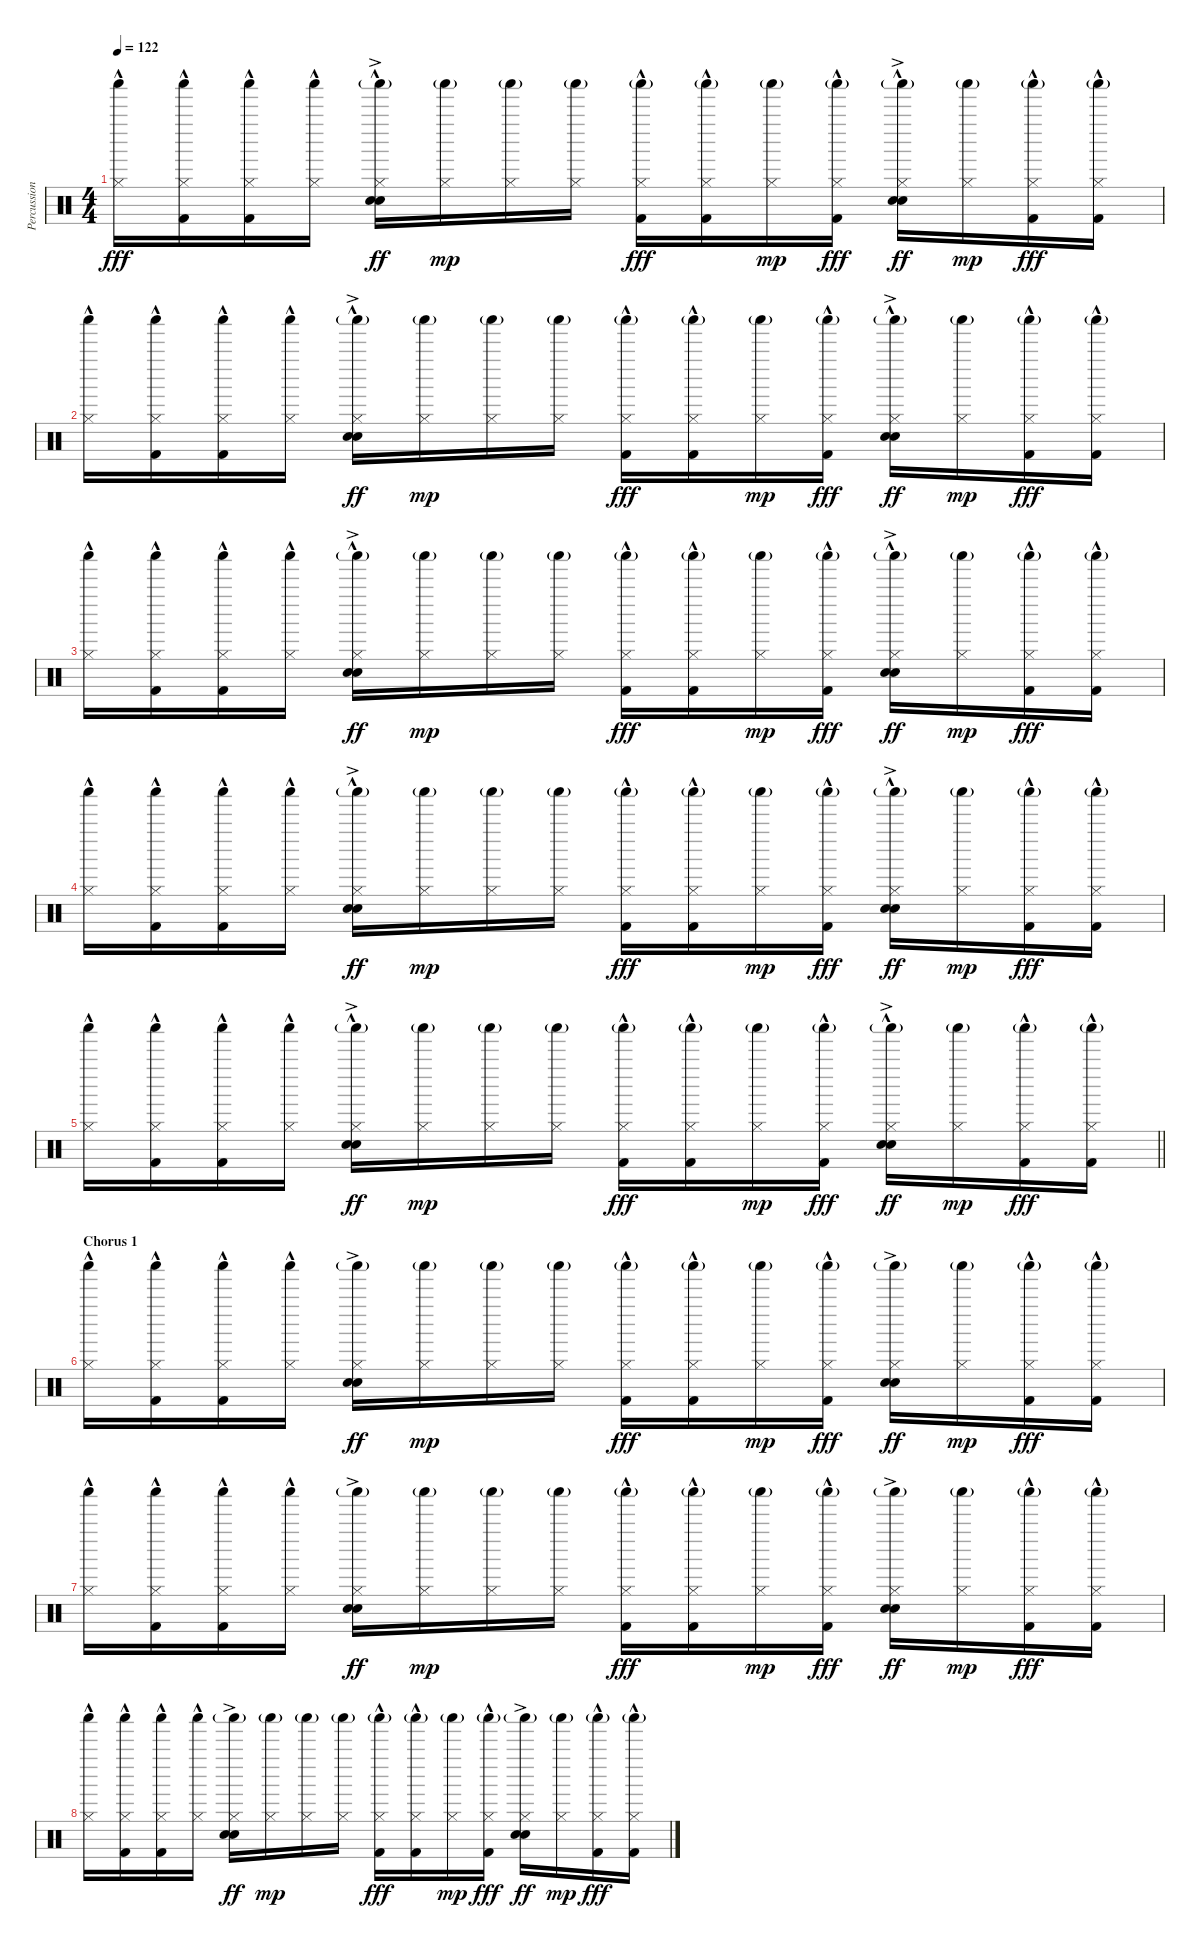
\track ("Percussion" "Percussion") {instrument percussion}
\staff {score}
\articulation defaults
\ts (4 4)
\tempo 122
\clef neutral
\ks c
("Shaker (hit)" "Hi-Hat (closed)"{hac}).16{dy fff} ("Shaker (hit)" "Hi-Hat (closed)"{hac} "Kick (hit) 2"{hac}).16 ("Shaker (hit)" "Hi-Hat (closed)"{hac} "Kick (hit) 2"{hac}).16 ("Shaker (hit)" "Hi-Hat (closed)"{hac}).16 ("Shaker (hit)"{g} "Hi-Hat (closed)" "Hand Clap (hit)"{hac} "Snare (hit) 2"{ac}).16{dy ff} ("Shaker (hit)"{g} "Hi-Hat (closed)").16{dy mp} ("Shaker (hit)"{g} "Hi-Hat (closed)").16 ("Shaker (hit)"{g} "Hi-Hat (closed)").16 ("Shaker (hit)"{g} "Hi-Hat (closed)" "Kick (hit) 2"{hac}).16{dy fff} ("Shaker (hit)"{g} "Hi-Hat (closed)" "Kick (hit) 2"{hac}).16 ("Shaker (hit)"{g} "Hi-Hat (closed)").16{dy mp} ("Shaker (hit)"{g} "Hi-Hat (closed)" "Kick (hit) 2"{hac}).16{dy fff} ("Shaker (hit)"{g} "Hi-Hat (closed)" "Hand Clap (hit)"{hac} "Snare (hit) 2"{ac}).16{dy ff} ("Shaker (hit)"{g} "Hi-Hat (closed)").16{dy mp} ("Shaker (hit)"{g} "Hi-Hat (closed)" "Kick (hit) 2"{hac}).16{dy fff} ("Shaker (hit)"{g} "Hi-Hat (closed)" "Kick (hit) 2"{hac}).16 |
("Shaker (hit)" "Hi-Hat (closed)"{hac}).16 ("Shaker (hit)" "Hi-Hat (closed)"{hac} "Kick (hit) 2"{hac}).16 ("Shaker (hit)" "Hi-Hat (closed)"{hac} "Kick (hit) 2"{hac}).16 ("Shaker (hit)" "Hi-Hat (closed)"{hac}).16 ("Shaker (hit)"{g} "Hi-Hat (closed)" "Hand Clap (hit)"{hac} "Snare (hit) 2"{ac}).16{dy ff} ("Shaker (hit)"{g} "Hi-Hat (closed)").16{dy mp} ("Shaker (hit)"{g} "Hi-Hat (closed)").16 ("Shaker (hit)"{g} "Hi-Hat (closed)").16 ("Shaker (hit)"{g} "Hi-Hat (closed)" "Kick (hit) 2"{hac}).16{dy fff} ("Shaker (hit)"{g} "Hi-Hat (closed)" "Kick (hit) 2"{hac}).16 ("Shaker (hit)"{g} "Hi-Hat (closed)").16{dy mp} ("Shaker (hit)"{g} "Hi-Hat (closed)" "Kick (hit) 2"{hac}).16{dy fff} ("Shaker (hit)"{g} "Hi-Hat (closed)" "Hand Clap (hit)"{hac} "Snare (hit) 2"{ac}).16{dy ff} ("Shaker (hit)"{g} "Hi-Hat (closed)").16{dy mp} ("Shaker (hit)"{g} "Hi-Hat (closed)" "Kick (hit) 2"{hac}).16{dy fff} ("Shaker (hit)"{g} "Hi-Hat (closed)" "Kick (hit) 2"{hac}).16 |
("Shaker (hit)" "Hi-Hat (closed)"{hac}).16 ("Shaker (hit)" "Hi-Hat (closed)"{hac} "Kick (hit) 2"{hac}).16 ("Shaker (hit)" "Hi-Hat (closed)"{hac} "Kick (hit) 2"{hac}).16 ("Shaker (hit)" "Hi-Hat (closed)"{hac}).16 ("Shaker (hit)"{g} "Hi-Hat (closed)" "Hand Clap (hit)"{hac} "Snare (hit) 2"{ac}).16{dy ff} ("Shaker (hit)"{g} "Hi-Hat (closed)").16{dy mp} ("Shaker (hit)"{g} "Hi-Hat (closed)").16 ("Shaker (hit)"{g} "Hi-Hat (closed)").16 ("Shaker (hit)"{g} "Hi-Hat (closed)" "Kick (hit) 2"{hac}).16{dy fff} ("Shaker (hit)"{g} "Hi-Hat (closed)" "Kick (hit) 2"{hac}).16 ("Shaker (hit)"{g} "Hi-Hat (closed)").16{dy mp} ("Shaker (hit)"{g} "Hi-Hat (closed)" "Kick (hit) 2"{hac}).16{dy fff} ("Shaker (hit)"{g} "Hi-Hat (closed)" "Hand Clap (hit)"{hac} "Snare (hit) 2"{ac}).16{dy ff} ("Shaker (hit)"{g} "Hi-Hat (closed)").16{dy mp} ("Shaker (hit)"{g} "Hi-Hat (closed)" "Kick (hit) 2"{hac}).16{dy fff} ("Shaker (hit)"{g} "Hi-Hat (closed)" "Kick (hit) 2"{hac}).16 |
("Shaker (hit)" "Hi-Hat (closed)"{hac}).16 ("Shaker (hit)" "Hi-Hat (closed)"{hac} "Kick (hit) 2"{hac}).16 ("Shaker (hit)" "Hi-Hat (closed)"{hac} "Kick (hit) 2"{hac}).16 ("Shaker (hit)" "Hi-Hat (closed)"{hac}).16 ("Shaker (hit)"{g} "Hi-Hat (closed)" "Hand Clap (hit)"{hac} "Snare (hit) 2"{ac}).16{dy ff} ("Shaker (hit)"{g} "Hi-Hat (closed)").16{dy mp} ("Shaker (hit)"{g} "Hi-Hat (closed)").16 ("Shaker (hit)"{g} "Hi-Hat (closed)").16 ("Shaker (hit)"{g} "Hi-Hat (closed)" "Kick (hit) 2"{hac}).16{dy fff} ("Shaker (hit)"{g} "Hi-Hat (closed)" "Kick (hit) 2"{hac}).16 ("Shaker (hit)"{g} "Hi-Hat (closed)").16{dy mp} ("Shaker (hit)"{g} "Hi-Hat (closed)" "Kick (hit) 2"{hac}).16{dy fff} ("Shaker (hit)"{g} "Hi-Hat (closed)" "Hand Clap (hit)"{hac} "Snare (hit) 2"{ac}).16{dy ff} ("Shaker (hit)"{g} "Hi-Hat (closed)").16{dy mp} ("Shaker (hit)"{g} "Hi-Hat (closed)" "Kick (hit) 2"{hac}).16{dy fff} ("Shaker (hit)"{g} "Hi-Hat (closed)" "Kick (hit) 2"{hac}).16 |
\barLineRight lightlight
("Shaker (hit)" "Hi-Hat (closed)"{hac}).16 ("Shaker (hit)" "Hi-Hat (closed)"{hac} "Kick (hit) 2"{hac}).16 ("Shaker (hit)" "Hi-Hat (closed)"{hac} "Kick (hit) 2"{hac}).16 ("Shaker (hit)" "Hi-Hat (closed)"{hac}).16 ("Shaker (hit)"{g} "Hi-Hat (closed)" "Hand Clap (hit)"{hac} "Snare (hit) 2"{ac}).16{dy ff} ("Shaker (hit)"{g} "Hi-Hat (closed)").16{dy mp} ("Shaker (hit)"{g} "Hi-Hat (closed)").16 ("Shaker (hit)"{g} "Hi-Hat (closed)").16 ("Shaker (hit)"{g} "Hi-Hat (closed)" "Kick (hit) 2"{hac}).16{dy fff} ("Shaker (hit)"{g} "Hi-Hat (closed)" "Kick (hit) 2"{hac}).16 ("Shaker (hit)"{g} "Hi-Hat (closed)").16{dy mp} ("Shaker (hit)"{g} "Hi-Hat (closed)" "Kick (hit) 2"{hac}).16{dy fff} ("Shaker (hit)"{g} "Hi-Hat (closed)" "Hand Clap (hit)"{hac} "Snare (hit) 2"{ac}).16{dy ff} ("Shaker (hit)"{g} "Hi-Hat (closed)").16{dy mp} ("Shaker (hit)"{g} "Hi-Hat (closed)" "Kick (hit) 2"{hac}).16{dy fff} ("Shaker (hit)"{g} "Hi-Hat (closed)" "Kick (hit) 2"{hac}).16 |
\section ("" "Chorus 1")
("Shaker (hit)" "Hi-Hat (closed)"{hac}).16 ("Shaker (hit)" "Hi-Hat (closed)"{hac} "Kick (hit) 2"{hac}).16 ("Shaker (hit)" "Hi-Hat (closed)"{hac} "Kick (hit) 2"{hac}).16 ("Shaker (hit)" "Hi-Hat (closed)"{hac}).16 ("Shaker (hit)"{g} "Hi-Hat (closed)" "Hand Clap (hit)" "Snare (hit) 2"{ac}).16{dy ff} ("Shaker (hit)"{g} "Hi-Hat (closed)").16{dy mp} ("Shaker (hit)"{g} "Hi-Hat (closed)").16 ("Shaker (hit)"{g} "Hi-Hat (closed)").16 ("Shaker (hit)"{g} "Hi-Hat (closed)" "Kick (hit) 2"{hac}).16{dy fff} ("Shaker (hit)"{g} "Hi-Hat (closed)" "Kick (hit) 2"{hac}).16 ("Shaker (hit)"{g} "Hi-Hat (closed)").16{dy mp} ("Shaker (hit)"{g} "Hi-Hat (closed)" "Kick (hit) 2"{hac}).16{dy fff} ("Shaker (hit)"{g} "Hi-Hat (closed)" "Hand Clap (hit)"{ac} "Snare (hit) 2"{ac}).16{dy ff} ("Shaker (hit)"{g} "Hi-Hat (closed)").16{dy mp} ("Shaker (hit)"{g} "Hi-Hat (closed)" "Kick (hit) 2"{hac}).16{dy fff} ("Shaker (hit)"{g} "Hi-Hat (closed)" "Kick (hit) 2"{hac}).16 |
("Shaker (hit)" "Hi-Hat (closed)"{hac}).16 ("Shaker (hit)" "Hi-Hat (closed)"{hac} "Kick (hit) 2"{hac}).16 ("Shaker (hit)" "Hi-Hat (closed)"{hac} "Kick (hit) 2"{hac}).16 ("Shaker (hit)" "Hi-Hat (closed)"{hac}).16 ("Shaker (hit)"{g} "Hi-Hat (closed)" "Hand Clap (hit)" "Snare (hit) 2"{ac}).16{dy ff} ("Shaker (hit)"{g} "Hi-Hat (closed)").16{dy mp} ("Shaker (hit)"{g} "Hi-Hat (closed)").16 ("Shaker (hit)"{g} "Hi-Hat (closed)").16 ("Shaker (hit)"{g} "Hi-Hat (closed)" "Kick (hit) 2"{hac}).16{dy fff} ("Shaker (hit)"{g} "Hi-Hat (closed)" "Kick (hit) 2"{hac}).16 ("Shaker (hit)"{g} "Hi-Hat (closed)").16{dy mp} ("Shaker (hit)"{g} "Hi-Hat (closed)" "Kick (hit) 2"{hac}).16{dy fff} ("Shaker (hit)"{g} "Hi-Hat (closed)" "Hand Clap (hit)"{ac} "Snare (hit) 2"{ac}).16{dy ff} ("Shaker (hit)"{g} "Hi-Hat (closed)").16{dy mp} ("Shaker (hit)"{g} "Hi-Hat (closed)" "Kick (hit) 2"{hac}).16{dy fff} ("Shaker (hit)"{g} "Hi-Hat (closed)" "Kick (hit) 2"{hac}).16 |
("Shaker (hit)" "Hi-Hat (closed)"{hac}).16 ("Shaker (hit)" "Hi-Hat (closed)"{hac} "Kick (hit) 2"{hac}).16 ("Shaker (hit)" "Hi-Hat (closed)"{hac} "Kick (hit) 2"{hac}).16 ("Shaker (hit)" "Hi-Hat (closed)"{hac}).16 ("Shaker (hit)"{g} "Hi-Hat (closed)" "Hand Clap (hit)" "Snare (hit) 2"{ac}).16{dy ff} ("Shaker (hit)"{g} "Hi-Hat (closed)").16{dy mp} ("Shaker (hit)"{g} "Hi-Hat (closed)").16 ("Shaker (hit)"{g} "Hi-Hat (closed)").16 ("Shaker (hit)"{g} "Hi-Hat (closed)" "Kick (hit) 2"{hac}).16{dy fff} ("Shaker (hit)"{g} "Hi-Hat (closed)" "Kick (hit) 2"{hac}).16 ("Shaker (hit)"{g} "Hi-Hat (closed)").16{dy mp} ("Shaker (hit)"{g} "Hi-Hat (closed)" "Kick (hit) 2"{hac}).16{dy fff} ("Shaker (hit)"{g} "Hi-Hat (closed)" "Hand Clap (hit)"{ac} "Snare (hit) 2"{ac}).16{dy ff} ("Shaker (hit)"{g} "Hi-Hat (closed)").16{dy mp} ("Shaker (hit)"{g} "Hi-Hat (closed)" "Kick (hit) 2"{hac}).16{dy fff} ("Shaker (hit)"{g} "Hi-Hat (closed)" "Kick (hit) 2"{hac}).16
